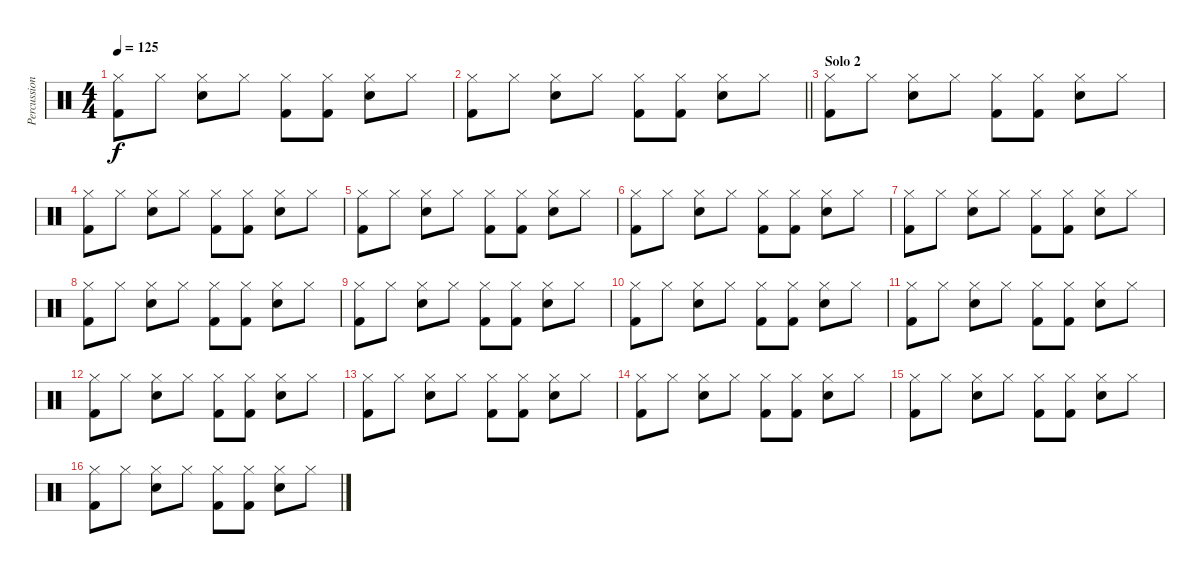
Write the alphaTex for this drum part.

\track ("Percussion" "Percussion") {instrument percussion}
\staff {score}
\articulation defaults
\ts (4 4)
\tempo 125
\clef neutral
\ks c
("Hi-Hat (closed)" "Kick (hit) 2").8{dy f} "Hi-Hat (closed)".8 ("Hi-Hat (closed)" "Snare (hit) 2").8 "Hi-Hat (closed)".8 ("Hi-Hat (closed)" "Kick (hit) 2").8 ("Hi-Hat (closed)" "Kick (hit) 2").8 ("Hi-Hat (closed)" "Snare (hit) 2").8 "Hi-Hat (closed)".8 |
\barLineRight lightlight
("Hi-Hat (closed)" "Kick (hit) 2").8 "Hi-Hat (closed)".8 ("Hi-Hat (closed)" "Snare (hit) 2").8 "Hi-Hat (closed)".8 ("Hi-Hat (closed)" "Kick (hit) 2").8 ("Hi-Hat (closed)" "Kick (hit) 2").8 ("Hi-Hat (closed)" "Snare (hit) 2").8 "Hi-Hat (closed)".8 |
\section ("" "Solo 2")
("Hi-Hat (closed)" "Kick (hit) 2").8 "Hi-Hat (closed)".8 ("Hi-Hat (closed)" "Snare (hit) 2").8 "Hi-Hat (closed)".8 ("Hi-Hat (closed)" "Kick (hit) 2").8 ("Hi-Hat (closed)" "Kick (hit) 2").8 ("Hi-Hat (closed)" "Snare (hit) 2").8 "Hi-Hat (closed)".8 |
("Hi-Hat (closed)" "Kick (hit) 2").8 "Hi-Hat (closed)".8 ("Hi-Hat (closed)" "Snare (hit) 2").8 "Hi-Hat (closed)".8 ("Hi-Hat (closed)" "Kick (hit) 2").8 ("Hi-Hat (closed)" "Kick (hit) 2").8 ("Hi-Hat (closed)" "Snare (hit) 2").8 "Hi-Hat (closed)".8 |
("Hi-Hat (closed)" "Kick (hit) 2").8 "Hi-Hat (closed)".8 ("Hi-Hat (closed)" "Snare (hit) 2").8 "Hi-Hat (closed)".8 ("Hi-Hat (closed)" "Kick (hit) 2").8 ("Hi-Hat (closed)" "Kick (hit) 2").8 ("Hi-Hat (closed)" "Snare (hit) 2").8 "Hi-Hat (closed)".8 |
("Hi-Hat (closed)" "Kick (hit) 2").8 "Hi-Hat (closed)".8 ("Hi-Hat (closed)" "Snare (hit) 2").8 "Hi-Hat (closed)".8 ("Hi-Hat (closed)" "Kick (hit) 2").8 ("Hi-Hat (closed)" "Kick (hit) 2").8 ("Hi-Hat (closed)" "Snare (hit) 2").8 "Hi-Hat (closed)".8 |
("Hi-Hat (closed)" "Kick (hit) 2").8 "Hi-Hat (closed)".8 ("Hi-Hat (closed)" "Snare (hit) 2").8 "Hi-Hat (closed)".8 ("Hi-Hat (closed)" "Kick (hit) 2").8 ("Hi-Hat (closed)" "Kick (hit) 2").8 ("Hi-Hat (closed)" "Snare (hit) 2").8 "Hi-Hat (closed)".8 |
("Hi-Hat (closed)" "Kick (hit) 2").8 "Hi-Hat (closed)".8 ("Hi-Hat (closed)" "Snare (hit) 2").8 "Hi-Hat (closed)".8 ("Hi-Hat (closed)" "Kick (hit) 2").8 ("Hi-Hat (closed)" "Kick (hit) 2").8 ("Hi-Hat (closed)" "Snare (hit) 2").8 "Hi-Hat (closed)".8 |
("Hi-Hat (closed)" "Kick (hit) 2").8 "Hi-Hat (closed)".8 ("Hi-Hat (closed)" "Snare (hit) 2").8 "Hi-Hat (closed)".8 ("Hi-Hat (closed)" "Kick (hit) 2").8 ("Hi-Hat (closed)" "Kick (hit) 2").8 ("Hi-Hat (closed)" "Snare (hit) 2").8 "Hi-Hat (closed)".8 |
("Hi-Hat (closed)" "Kick (hit) 2").8 "Hi-Hat (closed)".8 ("Hi-Hat (closed)" "Snare (hit) 2").8 "Hi-Hat (closed)".8 ("Hi-Hat (closed)" "Kick (hit) 2").8 ("Hi-Hat (closed)" "Kick (hit) 2").8 ("Hi-Hat (closed)" "Snare (hit) 2").8 "Hi-Hat (closed)".8 |
("Hi-Hat (closed)" "Kick (hit) 2").8 "Hi-Hat (closed)".8 ("Hi-Hat (closed)" "Snare (hit) 2").8 "Hi-Hat (closed)".8 ("Hi-Hat (closed)" "Kick (hit) 2").8 ("Hi-Hat (closed)" "Kick (hit) 2").8 ("Hi-Hat (closed)" "Snare (hit) 2").8 "Hi-Hat (closed)".8 |
("Hi-Hat (closed)" "Kick (hit) 2").8 "Hi-Hat (closed)".8 ("Hi-Hat (closed)" "Snare (hit) 2").8 "Hi-Hat (closed)".8 ("Hi-Hat (closed)" "Kick (hit) 2").8 ("Hi-Hat (closed)" "Kick (hit) 2").8 ("Hi-Hat (closed)" "Snare (hit) 2").8 "Hi-Hat (closed)".8 |
("Hi-Hat (closed)" "Kick (hit) 2").8 "Hi-Hat (closed)".8 ("Hi-Hat (closed)" "Snare (hit) 2").8 "Hi-Hat (closed)".8 ("Hi-Hat (closed)" "Kick (hit) 2").8 ("Hi-Hat (closed)" "Kick (hit) 2").8 ("Hi-Hat (closed)" "Snare (hit) 2").8 "Hi-Hat (closed)".8 |
("Hi-Hat (closed)" "Kick (hit) 2").8 "Hi-Hat (closed)".8 ("Hi-Hat (closed)" "Snare (hit) 2").8 "Hi-Hat (closed)".8 ("Hi-Hat (closed)" "Kick (hit) 2").8 ("Hi-Hat (closed)" "Kick (hit) 2").8 ("Hi-Hat (closed)" "Snare (hit) 2").8 "Hi-Hat (closed)".8 |
("Hi-Hat (closed)" "Kick (hit) 2").8 "Hi-Hat (closed)".8 ("Hi-Hat (closed)" "Snare (hit) 2").8 "Hi-Hat (closed)".8 ("Hi-Hat (closed)" "Kick (hit) 2").8 ("Hi-Hat (closed)" "Kick (hit) 2").8 ("Hi-Hat (closed)" "Snare (hit) 2").8 "Hi-Hat (closed)".8 |
("Hi-Hat (closed)" "Kick (hit) 2").8 "Hi-Hat (closed)".8 ("Hi-Hat (closed)" "Snare (hit) 2").8 "Hi-Hat (closed)".8 ("Hi-Hat (closed)" "Kick (hit) 2").8 ("Hi-Hat (closed)" "Kick (hit) 2").8 ("Hi-Hat (closed)" "Snare (hit) 2").8 "Hi-Hat (closed)".8
